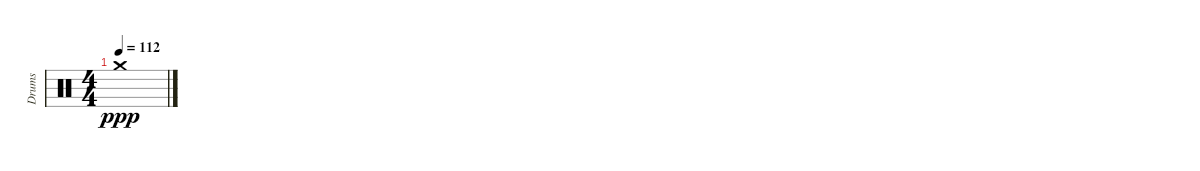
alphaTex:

\track ("Drums" "Drums") {instrument percussion}
\staff {score}
\articulation defaults
\ts (4 4)
\tempo 112
\clef neutral
\ks c "Crash medium (hit)".1{dy ppp}
